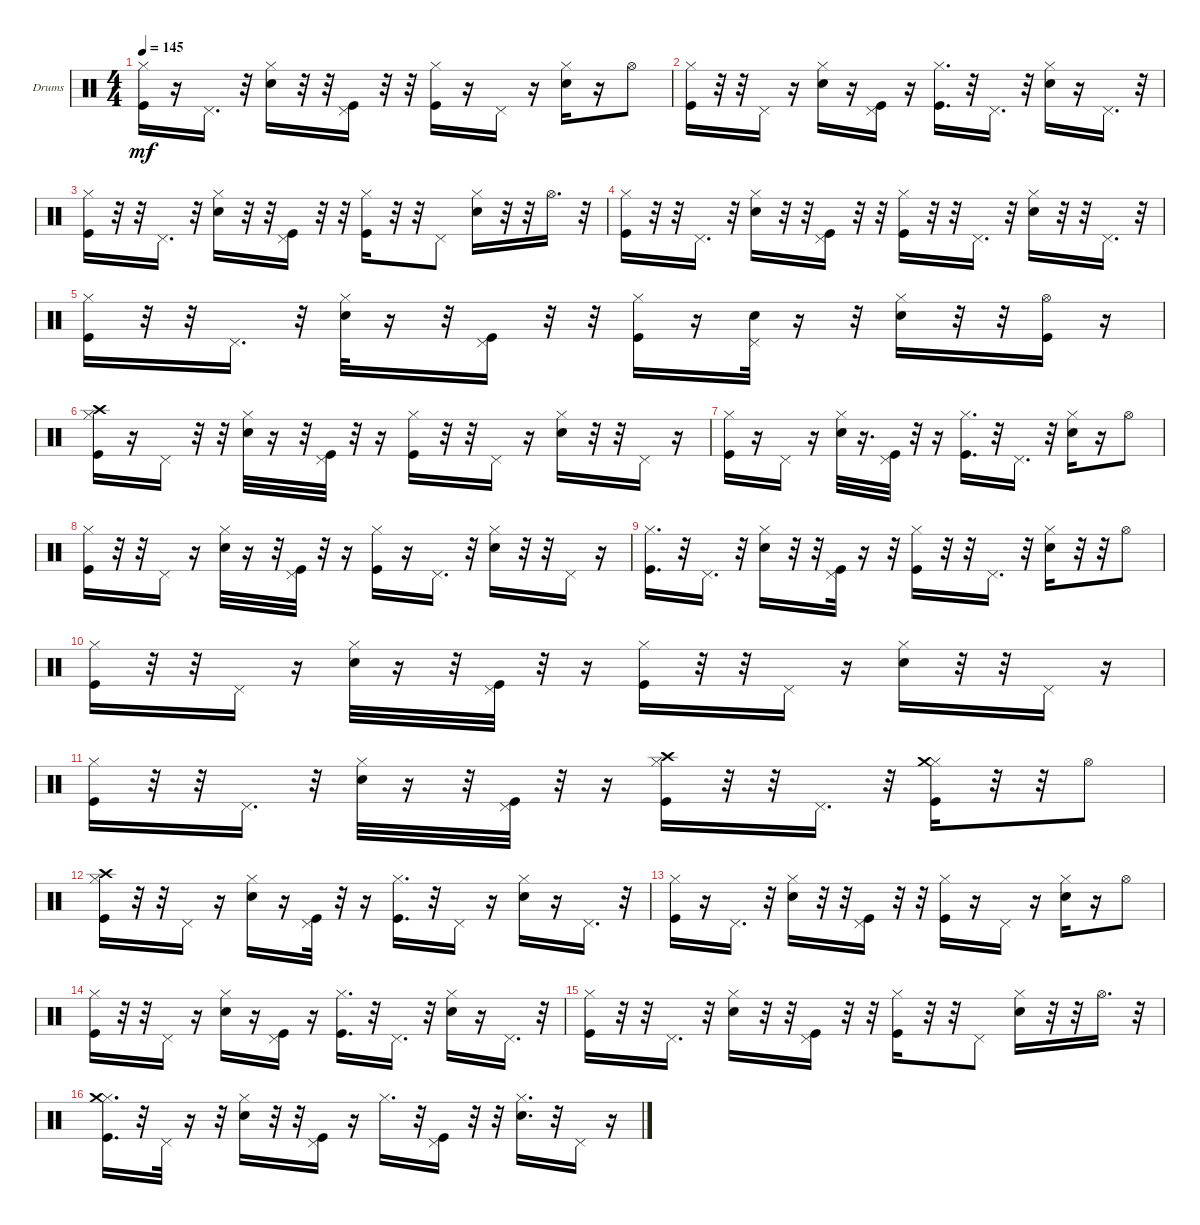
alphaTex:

\defaultSystemsLayout 4
\bracketExtendMode groupsimilarinstruments
\firstSystemTrackNameOrientation horizontal
\otherSystemsTrackNameOrientation horizontal
\track ("Drumkit" "Drums") {instrument percussion}
\staff {score}
\articulation defaults
\ts (4 4)
\tempo 145
\clef neutral
\scale
0.333333
\ks c
("Kick (hit)" "Hi-Hat (closed)").16{dy mf} r.16 "Pedal Hi-Hat (hit)".16{d} r.32 ("Snare (hit) 2" "Hi-Hat (closed)").16 r.32 r.32 ("Pedal Hi-Hat (hit)" "Kick (hit)").16 r.32 r.32 ("Hi-Hat (closed)" "Kick (hit)").16 r.16 "Pedal Hi-Hat (hit)".16 r.16 ("Snare (hit) 2" "Hi-Hat (closed)").16 r.16 "Hi-Hat (open)".8 |
\scale
0.333333 ("Hi-Hat (closed)" "Kick (hit)").16 r.32 r.32 "Pedal Hi-Hat (hit)".16 r.16 ("Snare (hit) 2" "Hi-Hat (closed)").16 r.16 ("Kick (hit)" "Pedal Hi-Hat (hit)").16 r.16 ("Hi-Hat (closed)" "Kick (hit)").16{d} r.32 "Pedal Hi-Hat (hit)".16{d} r.32 ("Snare (hit) 2" "Hi-Hat (closed)").16 r.16 "Pedal Hi-Hat (hit)".16{d} r.32 |
\scale
0.333333 ("Hi-Hat (closed)" "Kick (hit)").16 r.32 r.32 "Pedal Hi-Hat (hit)".16{d} r.32 ("Snare (hit) 2" "Hi-Hat (closed)").16 r.32 r.32 ("Pedal Hi-Hat (hit)" "Kick (hit)").16 r.32 r.32 ("Hi-Hat (closed)" "Kick (hit)").16 r.32 r.32 "Pedal Hi-Hat (hit)".8 ("Snare (hit) 2" "Hi-Hat (closed)").16 r.32 r.32 "Hi-Hat (open)".16{d} r.32 |
\scale
0.333333 ("Kick (hit)" "Hi-Hat (closed)").16 r.32 r.32 "Pedal Hi-Hat (hit)".16{d} r.32 ("Snare (hit) 2" "Hi-Hat (closed)").16 r.32 r.32 ("Kick (hit)" "Pedal Hi-Hat (hit)").16 r.32 r.32 ("Hi-Hat (closed)" "Kick (hit)").16 r.32 r.32 "Pedal Hi-Hat (hit)".16{d} r.32 ("Snare (hit) 2" "Hi-Hat (closed)").16 r.32 r.32 "Pedal Hi-Hat (hit)".16{d} r.32 |
\scale
0.333333 ("Kick (hit)" "Hi-Hat (closed)").16 r.32 r.32 "Pedal Hi-Hat (hit)".16{d} r.32 ("Snare (hit) 2" "Hi-Hat (closed)").32 r.16 r.32 ("Pedal Hi-Hat (hit)" "Kick (hit)").16 r.32 r.32 ("Hi-Hat (closed)" "Kick (hit)").16 r.16 ("Snare (hit) 2" "Pedal Hi-Hat (hit)").32 r.16 r.32 ("Snare (hit) 2" "Hi-Hat (closed)").16 r.32 r.32 ("Kick (hit)" "Hi-Hat (open)").16 r.16 |
\scale
0.333333 ("Crash high (hit)" "Kick (hit)" "Hi-Hat (closed)").16 r.16 "Pedal Hi-Hat (hit)".16 r.32 r.32 ("Snare (hit) 2" "Hi-Hat (closed)").32 r.16 r.32 ("Kick (hit)" "Pedal Hi-Hat (hit)").32 r.32 r.16 ("Kick (hit)" "Hi-Hat (closed)").16 r.32 r.32 "Pedal Hi-Hat (hit)".16 r.16 ("Snare (hit) 2" "Hi-Hat (closed)").16 r.32 r.32 "Pedal Hi-Hat (hit)".16 r.16 |
\scale
0.333333 ("Kick (hit)" "Hi-Hat (closed)").16 r.16 "Pedal Hi-Hat (hit)".16 r.16 ("Snare (hit) 2" "Hi-Hat (closed)").32 r.16{d} ("Pedal Hi-Hat (hit)" "Kick (hit)").32 r.32 r.16 ("Hi-Hat (closed)" "Kick (hit)").16{d} r.32 "Pedal Hi-Hat (hit)".16{d} r.32 ("Snare (hit) 2" "Hi-Hat (closed)").16 r.16 "Hi-Hat (open)".8 |
\scale
0.333333 ("Kick (hit)" "Hi-Hat (closed)").16 r.32 r.32 "Pedal Hi-Hat (hit)".16 r.16 ("Snare (hit) 2" "Hi-Hat (closed)").32 r.16 r.32 ("Kick (hit)" "Pedal Hi-Hat (hit)").32 r.32 r.16 ("Hi-Hat (closed)" "Kick (hit)").16 r.16 "Pedal Hi-Hat (hit)".16{d} r.32 ("Snare (hit) 2" "Hi-Hat (closed)").16 r.32 r.32 "Pedal Hi-Hat (hit)".16 r.16 |
\scale
0.333333 ("Hi-Hat (closed)" "Kick (hit)").16{d} r.32 "Pedal Hi-Hat (hit)".16{d} r.32 ("Snare (hit) 2" "Hi-Hat (closed)").16 r.32 r.32 ("Pedal Hi-Hat (hit)" "Kick (hit)").32 r.16 r.32 ("Hi-Hat (closed)" "Kick (hit)").16 r.32 r.32 "Pedal Hi-Hat (hit)".16{d} r.32 ("Snare (hit) 2" "Hi-Hat (closed)").16 r.32 r.32 "Hi-Hat (open)".8 |
\scale
0.333333 ("Kick (hit)" "Hi-Hat (closed)").16 r.32 r.32 "Pedal Hi-Hat (hit)".16 r.16 ("Snare (hit) 2" "Hi-Hat (closed)").32 r.16 r.32 ("Kick (hit)" "Pedal Hi-Hat (hit)").32 r.32 r.16 ("Kick (hit)" "Hi-Hat (closed)").16 r.32 r.32 "Pedal Hi-Hat (hit)".16 r.16 ("Snare (hit) 2" "Hi-Hat (closed)").16 r.32 r.32 "Pedal Hi-Hat (hit)".16 r.16 |
\scale
0.333333 ("Kick (hit)" "Hi-Hat (closed)").16 r.32 r.32 "Pedal Hi-Hat (hit)".16{d} r.32 ("Snare (hit) 2" "Hi-Hat (closed)").32 r.16 r.32 ("Kick (hit)" "Pedal Hi-Hat (hit)").32 r.32 r.16 ("Hi-Hat (closed)" "Kick (hit)" "Crash high (hit)").16 r.32 r.32 "Pedal Hi-Hat (hit)".16{d} r.32 ("Kick (hit)" "Hi-Hat (closed)" "Crash medium (hit)").16 r.32 r.32 "Hi-Hat (open)".8 |
\scale
0.333333 ("Kick (hit)" "Hi-Hat (closed)" "Crash high (hit)").16 r.32 r.32 "Pedal Hi-Hat (hit)".16 r.16 ("Snare (hit) 2" "Hi-Hat (closed)").16 r.16 ("Kick (hit)" "Pedal Hi-Hat (hit)").32 r.32 r.16 ("Kick (hit)" "Hi-Hat (closed)").16{d} r.32 "Pedal Hi-Hat (hit)".16 r.16 ("Snare (hit) 2" "Hi-Hat (closed)").16 r.16 "Pedal Hi-Hat (hit)".16{d} r.32 |
\scale
0.333333 ("Kick (hit)" "Hi-Hat (closed)").16 r.16 "Pedal Hi-Hat (hit)".16{d} r.32 ("Snare (hit) 2" "Hi-Hat (closed)").16 r.32 r.32 ("Pedal Hi-Hat (hit)" "Kick (hit)").16 r.32 r.32 ("Hi-Hat (closed)" "Kick (hit)").16 r.16 "Pedal Hi-Hat (hit)".16 r.16 ("Snare (hit) 2" "Hi-Hat (closed)").16 r.16 "Hi-Hat (open)".8 |
\scale
0.333333 ("Hi-Hat (closed)" "Kick (hit)").16 r.32 r.32 "Pedal Hi-Hat (hit)".16 r.16 ("Snare (hit) 2" "Hi-Hat (closed)").16 r.16 ("Kick (hit)" "Pedal Hi-Hat (hit)").16 r.16 ("Hi-Hat (closed)" "Kick (hit)").16{d} r.32 "Pedal Hi-Hat (hit)".16{d} r.32 ("Snare (hit) 2" "Hi-Hat (closed)").16 r.16 "Pedal Hi-Hat (hit)".16{d} r.32 |
\scale
0.333333 ("Hi-Hat (closed)" "Kick (hit)").16 r.32 r.32 "Pedal Hi-Hat (hit)".16{d} r.32 ("Snare (hit) 2" "Hi-Hat (closed)").16 r.32 r.32 ("Pedal Hi-Hat (hit)" "Kick (hit)").16 r.32 r.32 ("Hi-Hat (closed)" "Kick (hit)").16 r.32 r.32 "Pedal Hi-Hat (hit)".8 ("Snare (hit) 2" "Hi-Hat (closed)").16 r.32 r.32 "Hi-Hat (open)".16{d} r.32 |
\scale
0.333333 ("Kick (hit)" "Hi-Hat (closed)" "Crash medium (hit)").16{d} r.32 "Pedal Hi-Hat (hit)".32 r.16 r.32 ("Snare (hit) 2" "Hi-Hat (closed)").16 r.32 r.32 ("Pedal Hi-Hat (hit)" "Kick (hit)").16 r.16 "Hi-Hat (closed)".16{d} r.32 ("Pedal Hi-Hat (hit)" "Kick (hit)").16 r.32 r.32 ("Snare (hit) 2" "Hi-Hat (closed)").16{d} r.32 "Pedal Hi-Hat (hit)".16 r.16
